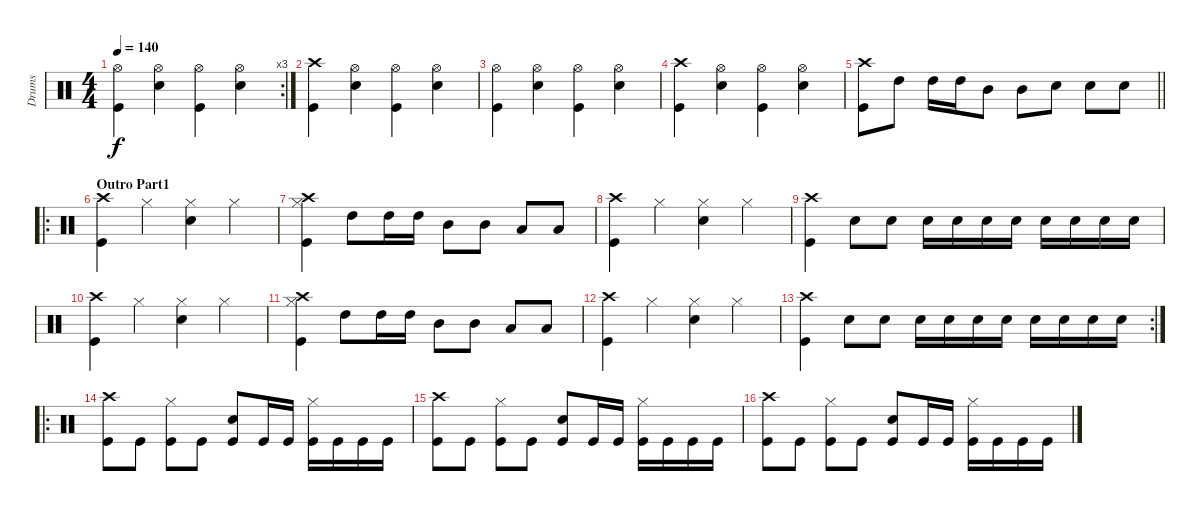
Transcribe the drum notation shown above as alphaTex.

\track ("Drums" "Drums") {instrument percussion}
\staff {score}
\articulation defaults
\rc 3
\ts (4 4)
\tempo 140
\clef neutral
\ks c
("Hi-Hat (open)" "Kick (hit)").4{dy f} ("Hi-Hat (open)" "Snare (hit) 2").4 ("Hi-Hat (open)" "Kick (hit)").4 ("Hi-Hat (open)" "Snare (hit) 2").4 |
("Crash high (hit)" "Kick (hit)").4 ("Hi-Hat (open)" "Snare (hit) 2").4 ("Hi-Hat (open)" "Kick (hit)").4 ("Hi-Hat (open)" "Snare (hit) 2").4 |
("Hi-Hat (open)" "Kick (hit)").4 ("Hi-Hat (open)" "Snare (hit) 2").4 ("Hi-Hat (open)" "Kick (hit)").4 ("Hi-Hat (open)" "Snare (hit) 2").4 |
("Crash high (hit)" "Kick (hit)").4 ("Hi-Hat (open)" "Snare (hit) 2").4 ("Hi-Hat (open)" "Kick (hit)").4 ("Hi-Hat (open)" "Snare (hit) 2").4 |
\barLineRight lightlight
("Crash high (hit)" "Kick (hit)").8 "High Tom (hit)".8 "High Tom (hit)".16 "High Tom (hit)".16 "Mid Tom (hit)".8 "Mid Tom (hit)".8 "Snare (hit) 2".8 "Snare (hit) 2".8 "Snare (hit) 2".8 |
\ro
\section ("" "Outro Part1")
("Crash high (hit)" "Kick (hit)").4 "Hi-Hat (closed)".4 ("Snare (hit) 2" "Hi-Hat (closed)").4 "Hi-Hat (closed)".4 |
("Crash high (hit)" "Hi-Hat (closed)" "Kick (hit)").4 "High Tom (hit)".8 "High Tom (hit)".16 "High Tom (hit)".16 "Mid Tom (hit)".8 "Mid Tom (hit)".8 "Low Tom (hit)".8 "Low Tom (hit)".8 |
("Crash high (hit)" "Kick (hit)").4 "Hi-Hat (closed)".4 ("Snare (hit) 2" "Hi-Hat (closed)").4 "Hi-Hat (closed)".4 |
("Crash high (hit)" "Kick (hit)").4 "Snare (hit) 2".8 "Snare (hit) 2".8 "Snare (hit) 2".16 "Snare (hit) 2".16 "Snare (hit) 2".16 "Snare (hit) 2".16 "Snare (hit) 2".16 "Snare (hit) 2".16 "Snare (hit) 2".16 "Snare (hit) 2".16 |
("Crash high (hit)" "Kick (hit)").4 "Hi-Hat (closed)".4 ("Snare (hit) 2" "Hi-Hat (closed)").4 "Hi-Hat (closed)".4 |
("Crash high (hit)" "Hi-Hat (closed)" "Kick (hit)").4 "High Tom (hit)".8 "High Tom (hit)".16 "High Tom (hit)".16 "Mid Tom (hit)".8 "Mid Tom (hit)".8 "Low Tom (hit)".8 "Low Tom (hit)".8 |
("Crash high (hit)" "Kick (hit)").4 "Hi-Hat (closed)".4 ("Snare (hit) 2" "Hi-Hat (closed)").4 "Hi-Hat (closed)".4 |
\rc 2
("Crash high (hit)" "Kick (hit)").4 "Snare (hit) 2".8 "Snare (hit) 2".8 "Snare (hit) 2".16 "Snare (hit) 2".16 "Snare (hit) 2".16 "Snare (hit) 2".16 "Snare (hit) 2".16 "Snare (hit) 2".16 "Snare (hit) 2".16 "Snare (hit) 2".16 |
\ro
("Crash high (hit)" "Kick (hit)").8 "Kick (hit)".8 ("Hi-Hat (closed)" "Kick (hit)").8 "Kick (hit)".8 ("Snare (hit) 2" "Kick (hit)").8 "Kick (hit)".16 "Kick (hit)".16 ("Hi-Hat (closed)" "Kick (hit)").16 "Kick (hit)".16 "Kick (hit)".16 "Kick (hit)".16 |
("Crash high (hit)" "Kick (hit)").8 "Kick (hit)".8 ("Hi-Hat (closed)" "Kick (hit)").8 "Kick (hit)".8 ("Snare (hit) 2" "Kick (hit)").8 "Kick (hit)".16 "Kick (hit)".16 ("Hi-Hat (closed)" "Kick (hit)").16 "Kick (hit)".16 "Kick (hit)".16 "Kick (hit)".16 |
("Crash high (hit)" "Kick (hit)").8 "Kick (hit)".8 ("Hi-Hat (closed)" "Kick (hit)").8 "Kick (hit)".8 ("Snare (hit) 2" "Kick (hit)").8 "Kick (hit)".16 "Kick (hit)".16 ("Hi-Hat (closed)" "Kick (hit)").16 "Kick (hit)".16 "Kick (hit)".16 "Kick (hit)".16
